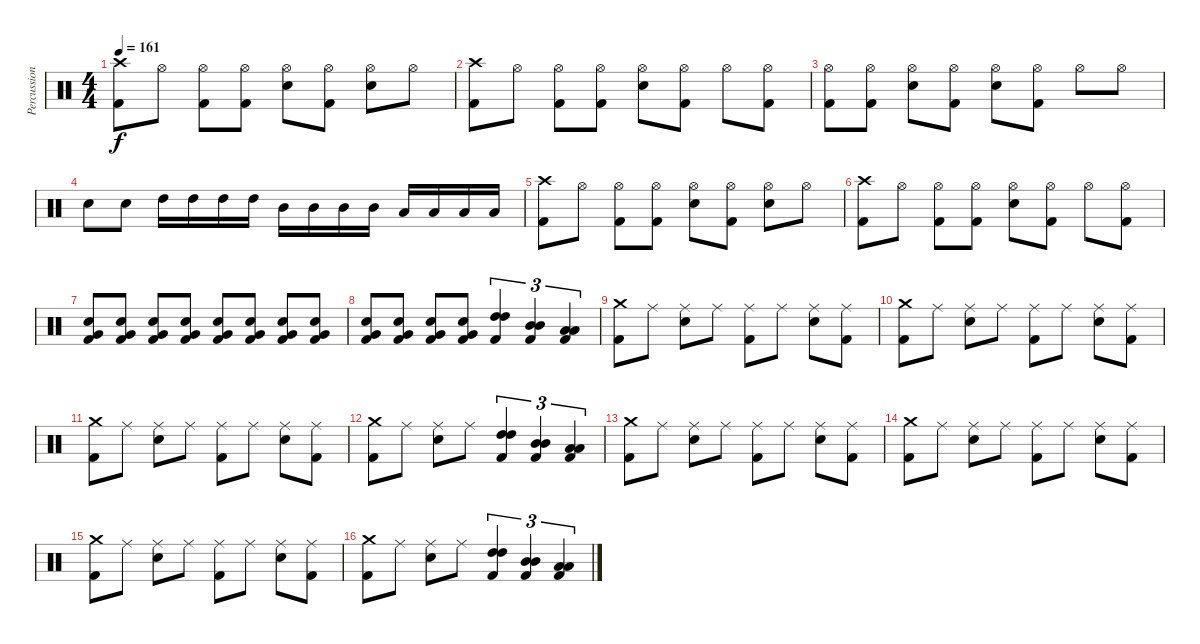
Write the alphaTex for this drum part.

\track ("Percussions" "Percussion") {instrument percussion}
\staff {score}
\articulation defaults
\ts (4 4)
\tempo 161
\clef neutral
\ks c
("Kick (hit) 2" "Crash high (hit)").8{dy f} "Hi-Hat (open)".8 ("Kick (hit) 2" "Hi-Hat (open)").8 ("Kick (hit) 2" "Hi-Hat (open)").8 ("Electric Snare (hit)" "Hi-Hat (open)").8 ("Kick (hit) 2" "Hi-Hat (open)").8 ("Electric Snare (hit)" "Hi-Hat (open)").8 "Hi-Hat (open)".8 |
("Kick (hit) 2" "Crash high (hit)").8 "Hi-Hat (open)".8 ("Kick (hit) 2" "Hi-Hat (open)").8 ("Kick (hit) 2" "Hi-Hat (open)").8 ("Electric Snare (hit)" "Hi-Hat (open)").8 ("Kick (hit) 2" "Hi-Hat (open)").8 "Hi-Hat (open)".8 ("Kick (hit) 2" "Hi-Hat (open)").8 |
("Kick (hit) 2" "Hi-Hat (open)").8 ("Kick (hit) 2" "Hi-Hat (open)").8 ("Electric Snare (hit)" "Hi-Hat (open)").8 ("Kick (hit) 2" "Hi-Hat (open)").8 ("Electric Snare (hit)" "Hi-Hat (open)").8 ("Kick (hit) 2" "Hi-Hat (open)").8 "Hi-Hat (open)".8 "Hi-Hat (open)".8 |
"Electric Snare (hit)".8 "Electric Snare (hit)".8 "High Tom (hit)".16 "High Tom (hit)".16 "High Tom (hit)".16 "High Tom (hit)".16 "Mid Tom (hit)".16 "Mid Tom (hit)".16 "Mid Tom (hit)".16 "Mid Tom (hit)".16 "Low Tom (hit)".16 "Low Tom (hit)".16 "Low Tom (hit)".16 "Low Tom (hit)".16 |
("Kick (hit) 2" "Crash high (hit)").8 "Hi-Hat (open)".8 ("Kick (hit) 2" "Hi-Hat (open)").8 ("Kick (hit) 2" "Hi-Hat (open)").8 ("Electric Snare (hit)" "Hi-Hat (open)").8 ("Kick (hit) 2" "Hi-Hat (open)").8 ("Electric Snare (hit)" "Hi-Hat (open)").8 "Hi-Hat (open)".8 |
("Kick (hit) 2" "Crash high (hit)").8 "Hi-Hat (open)".8 ("Kick (hit) 2" "Hi-Hat (open)").8 ("Kick (hit) 2" "Hi-Hat (open)").8 ("Electric Snare (hit)" "Hi-Hat (open)").8 ("Kick (hit) 2" "Hi-Hat (open)").8 "Hi-Hat (open)".8 ("Kick (hit) 2" "Hi-Hat (open)").8 |
("Kick (hit) 2" "Very Low Tom (hit)" "Electric Snare (hit)").8 ("Kick (hit) 2" "Very Low Tom (hit)" "Electric Snare (hit)").8 ("Kick (hit) 2" "Very Low Tom (hit)" "Electric Snare (hit)").8 ("Kick (hit) 2" "Very Low Tom (hit)" "Electric Snare (hit)").8 ("Kick (hit) 2" "Very Low Tom (hit)" "Electric Snare (hit)").8 ("Kick (hit) 2" "Very Low Tom (hit)" "Electric Snare (hit)").8 ("Kick (hit) 2" "Very Low Tom (hit)" "Electric Snare (hit)").8 ("Kick (hit) 2" "Very Low Tom (hit)" "Electric Snare (hit)").8 |
("Kick (hit) 2" "Very Low Tom (hit)" "Electric Snare (hit)").8 ("Kick (hit) 2" "Very Low Tom (hit)" "Electric Snare (hit)").8 ("Kick (hit) 2" "Very Low Tom (hit)" "Electric Snare (hit)").8 ("Kick (hit) 2" "Very Low Tom (hit)" "Electric Snare (hit)").8 ("Kick (hit) 2" "High Tom (hit)" "High Tom (hit)").4{tu (3 2)} ("Kick (hit) 2" "Mid Tom (hit)" "Mid Tom (hit)").4{tu (3 2)} ("Kick (hit) 2" "Low Tom (hit)" "Low Tom (hit)").4{tu (3 2)} |
("Kick (hit) 2" "Crash medium (hit)").8 "Ride (middle)".8 ("Electric Snare (hit)" "Ride (middle)").8 "Ride (middle)".8 ("Kick (hit) 2" "Ride (middle)").8 "Ride (middle)".8 ("Electric Snare (hit)" "Ride (middle)").8 ("Kick (hit) 2" "Ride (middle)").8 |
("Kick (hit) 2" "Crash medium (hit)").8 "Ride (middle)".8 ("Electric Snare (hit)" "Ride (middle)").8 "Ride (middle)".8 ("Kick (hit) 2" "Ride (middle)").8 "Ride (middle)".8 ("Electric Snare (hit)" "Ride (middle)").8 ("Kick (hit) 2" "Ride (middle)").8 |
("Kick (hit) 2" "Crash medium (hit)").8 "Ride (middle)".8 ("Electric Snare (hit)" "Ride (middle)").8 "Ride (middle)".8 ("Kick (hit) 2" "Ride (middle)").8 "Ride (middle)".8 ("Electric Snare (hit)" "Ride (middle)").8 ("Kick (hit) 2" "Ride (middle)").8 |
("Kick (hit) 2" "Crash medium (hit)").8 "Ride (middle)".8 ("Electric Snare (hit)" "Ride (middle)").8 "Ride (middle)".8 ("Kick (hit) 2" "High Tom (hit)" "High Tom (hit)").4{tu (3 2)} ("Kick (hit) 2" "Mid Tom (hit)" "Mid Tom (hit)").4{tu (3 2)} ("Kick (hit) 2" "Low Tom (hit)" "Low Tom (hit)").4{tu (3 2)} |
("Kick (hit) 2" "Crash medium (hit)").8 "Ride (middle)".8 ("Electric Snare (hit)" "Ride (middle)").8 "Ride (middle)".8 ("Kick (hit) 2" "Ride (middle)").8 "Ride (middle)".8 ("Electric Snare (hit)" "Ride (middle)").8 ("Kick (hit) 2" "Ride (middle)").8 |
("Kick (hit) 2" "Crash medium (hit)").8 "Ride (middle)".8 ("Electric Snare (hit)" "Ride (middle)").8 "Ride (middle)".8 ("Kick (hit) 2" "Ride (middle)").8 "Ride (middle)".8 ("Electric Snare (hit)" "Ride (middle)").8 ("Kick (hit) 2" "Ride (middle)").8 |
("Kick (hit) 2" "Crash medium (hit)").8 "Ride (middle)".8 ("Electric Snare (hit)" "Ride (middle)").8 "Ride (middle)".8 ("Kick (hit) 2" "Ride (middle)").8 "Ride (middle)".8 ("Electric Snare (hit)" "Ride (middle)").8 ("Kick (hit) 2" "Ride (middle)").8 |
("Kick (hit) 2" "Crash medium (hit)").8 "Ride (middle)".8 ("Electric Snare (hit)" "Ride (middle)").8 "Ride (middle)".8 ("Kick (hit) 2" "High Tom (hit)" "High Tom (hit)").4{tu (3 2)} ("Kick (hit) 2" "Mid Tom (hit)" "Mid Tom (hit)").4{tu (3 2)} ("Kick (hit) 2" "Low Tom (hit)" "Low Tom (hit)").4{tu (3 2)}
